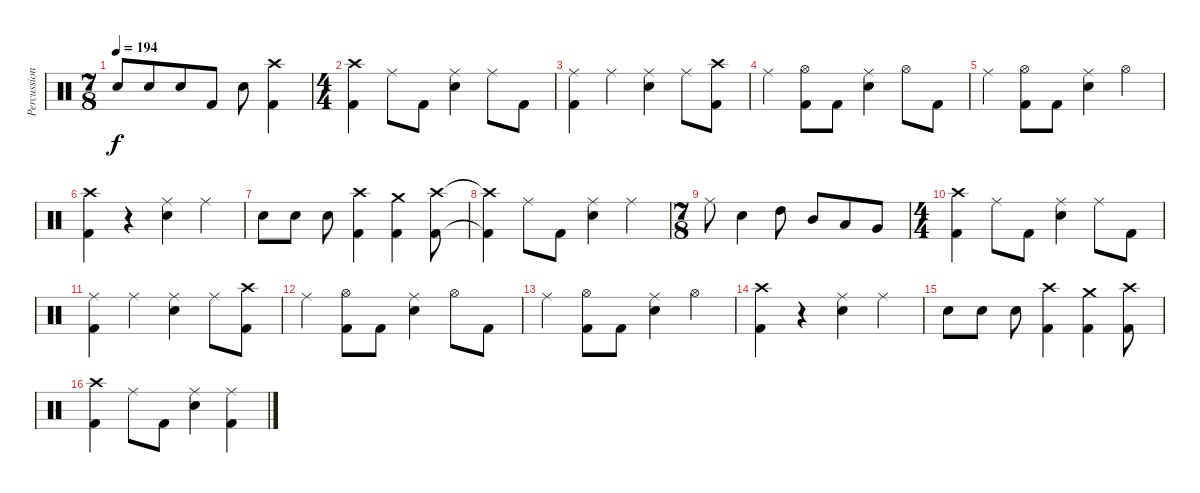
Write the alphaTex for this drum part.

\track ("Percussions" "Percussion") {instrument percussion}
\staff {score}
\articulation defaults
\ts (7 8)
\tempo 194
\clef neutral
\ks c "Electric Snare (hit)".8{dy f} "Electric Snare (hit)".8 "Electric Snare (hit)".8 "Kick (hit) 2".8 "Electric Snare (hit)".8
("Crash high (hit)" "Kick (hit) 2").4 |
\ts (4 4)
("Crash high (hit)" "Kick (hit) 2").4 "Ride (middle)".8 "Kick (hit) 2".8 ("Ride (middle)" "Electric Snare (hit)").4 "Ride (middle)".8 "Kick (hit) 2".8 |
("Ride (middle)" "Kick (hit) 2").4 "Ride (middle)".4 ("Ride (middle)" "Electric Snare (hit)").4 "Ride (middle)".8 ("Crash high (hit)" "Kick (hit) 2").8 |
"Ride (middle)".4 ("Hi-Hat (open)" "Kick (hit) 2").8 "Kick (hit) 2".8 ("Ride (middle)" "Electric Snare (hit)").4 "Hi-Hat (open)".8 "Kick (hit) 2".8 |
"Ride (middle)".4 ("Hi-Hat (open)" "Kick (hit) 2").8 "Kick (hit) 2".8 ("Ride (middle)" "Electric Snare (hit)").4 "Hi-Hat (open)".4 |
("Crash high (hit)" "Kick (hit) 2").4 r.4 ("Ride (middle)" "Electric Snare (hit)").4 "Ride (middle)".4 |
"Electric Snare (hit)".8 "Electric Snare (hit)".8 "Electric Snare (hit)".8 ("Crash high (hit)" "Kick (hit) 2").4 ("Crash medium (hit)" "Kick (hit) 2").4 ("Crash high (hit)" "Kick (hit) 2").8 |
("Crash high (hit)"{t} "Kick (hit) 2"{t}).4 "Ride (middle)".8 "Kick (hit) 2".8 ("Ride (middle)" "Electric Snare (hit)").4 "Ride (middle)".4 |
\ts (7 8)
"Ride (middle)".8 "Electric Snare (hit)".4 "High Tom (hit)".8 "Mid Tom (hit)".8 "Low Tom (hit)".8 "Very Low Tom (hit)".8 |
\ts (4 4)
("Crash high (hit)" "Kick (hit) 2").4 "Ride (middle)".8 "Kick (hit) 2".8 ("Ride (middle)" "Electric Snare (hit)").4 "Ride (middle)".8 "Kick (hit) 2".8 |
("Ride (middle)" "Kick (hit) 2").4 "Ride (middle)".4 ("Ride (middle)" "Electric Snare (hit)").4 "Ride (middle)".8 ("Crash high (hit)" "Kick (hit) 2").8 |
"Ride (middle)".4 ("Hi-Hat (open)" "Kick (hit) 2").8 "Kick (hit) 2".8 ("Ride (middle)" "Electric Snare (hit)").4 "Hi-Hat (open)".8 "Kick (hit) 2".8 |
"Ride (middle)".4 ("Hi-Hat (open)" "Kick (hit) 2").8 "Kick (hit) 2".8 ("Ride (middle)" "Electric Snare (hit)").4 "Hi-Hat (open)".4 |
("Crash high (hit)" "Kick (hit) 2").4 r.4 ("Ride (middle)" "Electric Snare (hit)").4 "Ride (middle)".4 |
"Electric Snare (hit)".8 "Electric Snare (hit)".8 "Electric Snare (hit)".8 ("Crash high (hit)" "Kick (hit) 2").4 ("Crash medium (hit)" "Kick (hit) 2").4 ("Crash high (hit)" "Kick (hit) 2").8 |
("Crash high (hit)" "Kick (hit) 2").4 "Ride (middle)".8 "Kick (hit) 2".8 ("Ride (middle)" "Electric Snare (hit)").4 ("Ride (middle)" "Kick (hit) 2").4
